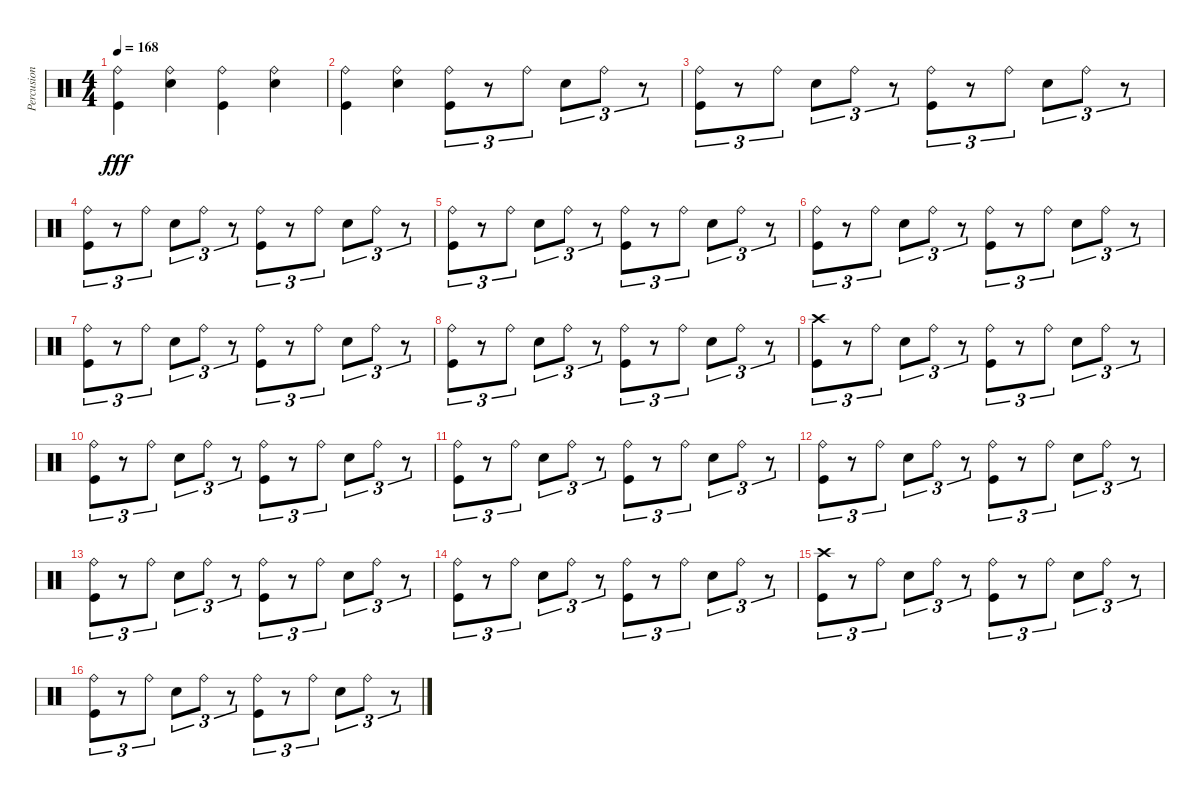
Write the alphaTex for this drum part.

\track ("Percusion" "Percusion") {instrument percussion}
\staff {score}
\articulation defaults
\ts (4 4)
\tempo 168
\clef neutral
\ks c
("Ride (bell)" "Kick (hit)").4{dy fff} ("Ride (bell)" "Snare (hit) 2").4 ("Ride (bell)" "Kick (hit)").4 ("Ride (bell)" "Snare (hit) 2").4 |
("Ride (bell)" "Kick (hit)").4 ("Ride (bell)" "Snare (hit) 2").4 ("Ride (bell)" "Kick (hit)").8{tu (3 2)} r.8{tu (3 2)} "Ride (bell)".8{tu (3 2)} "Snare (hit) 2".8{tu (3 2)} "Ride (bell)".8{tu (3 2)} r.8{tu (3 2)} |
("Ride (bell)" "Kick (hit)").8{tu (3 2)} r.8{tu (3 2)} "Ride (bell)".8{tu (3 2)} "Snare (hit) 2".8{tu (3 2)} "Ride (bell)".8{tu (3 2)} r.8{tu (3 2)} ("Ride (bell)" "Kick (hit)").8{tu (3 2)} r.8{tu (3 2)} "Ride (bell)".8{tu (3 2)} "Snare (hit) 2".8{tu (3 2)} "Ride (bell)".8{tu (3 2)} r.8{tu (3 2)} |
("Ride (bell)" "Kick (hit)").8{tu (3 2)} r.8{tu (3 2)} "Ride (bell)".8{tu (3 2)} "Snare (hit) 2".8{tu (3 2)} "Ride (bell)".8{tu (3 2)} r.8{tu (3 2)} ("Ride (bell)" "Kick (hit)").8{tu (3 2)} r.8{tu (3 2)} "Ride (bell)".8{tu (3 2)} "Snare (hit) 2".8{tu (3 2)} "Ride (bell)".8{tu (3 2)} r.8{tu (3 2)} |
("Ride (bell)" "Kick (hit)").8{tu (3 2)} r.8{tu (3 2)} "Ride (bell)".8{tu (3 2)} "Snare (hit) 2".8{tu (3 2)} "Ride (bell)".8{tu (3 2)} r.8{tu (3 2)} ("Ride (bell)" "Kick (hit)").8{tu (3 2)} r.8{tu (3 2)} "Ride (bell)".8{tu (3 2)} "Snare (hit) 2".8{tu (3 2)} "Ride (bell)".8{tu (3 2)} r.8{tu (3 2)} |
("Ride (bell)" "Kick (hit)").8{tu (3 2)} r.8{tu (3 2)} "Ride (bell)".8{tu (3 2)} "Snare (hit) 2".8{tu (3 2)} "Ride (bell)".8{tu (3 2)} r.8{tu (3 2)} ("Ride (bell)" "Kick (hit)").8{tu (3 2)} r.8{tu (3 2)} "Ride (bell)".8{tu (3 2)} "Snare (hit) 2".8{tu (3 2)} "Ride (bell)".8{tu (3 2)} r.8{tu (3 2)} |
("Ride (bell)" "Kick (hit)").8{tu (3 2)} r.8{tu (3 2)} "Ride (bell)".8{tu (3 2)} "Snare (hit) 2".8{tu (3 2)} "Ride (bell)".8{tu (3 2)} r.8{tu (3 2)} ("Ride (bell)" "Kick (hit)").8{tu (3 2)} r.8{tu (3 2)} "Ride (bell)".8{tu (3 2)} "Snare (hit) 2".8{tu (3 2)} "Ride (bell)".8{tu (3 2)} r.8{tu (3 2)} |
("Ride (bell)" "Kick (hit)").8{tu (3 2)} r.8{tu (3 2)} "Ride (bell)".8{tu (3 2)} "Snare (hit) 2".8{tu (3 2)} "Ride (bell)".8{tu (3 2)} r.8{tu (3 2)} ("Ride (bell)" "Kick (hit)").8{tu (3 2)} r.8{tu (3 2)} "Ride (bell)".8{tu (3 2)} "Snare (hit) 2".8{tu (3 2)} "Ride (bell)".8{tu (3 2)} r.8{tu (3 2)} |
("Crash high (hit)" "Kick (hit)").8{tu (3 2)} r.8{tu (3 2)} "Ride (bell)".8{tu (3 2)} "Snare (hit) 2".8{tu (3 2)} "Ride (bell)".8{tu (3 2)} r.8{tu (3 2)} ("Ride (bell)" "Kick (hit)").8{tu (3 2)} r.8{tu (3 2)} "Ride (bell)".8{tu (3 2)} "Snare (hit) 2".8{tu (3 2)} "Ride (bell)".8{tu (3 2)} r.8{tu (3 2)} |
("Ride (bell)" "Kick (hit)").8{tu (3 2)} r.8{tu (3 2)} "Ride (bell)".8{tu (3 2)} "Snare (hit) 2".8{tu (3 2)} "Ride (bell)".8{tu (3 2)} r.8{tu (3 2)} ("Ride (bell)" "Kick (hit)").8{tu (3 2)} r.8{tu (3 2)} "Ride (bell)".8{tu (3 2)} "Snare (hit) 2".8{tu (3 2)} "Ride (bell)".8{tu (3 2)} r.8{tu (3 2)} |
("Ride (bell)" "Kick (hit)").8{tu (3 2)} r.8{tu (3 2)} "Ride (bell)".8{tu (3 2)} "Snare (hit) 2".8{tu (3 2)} "Ride (bell)".8{tu (3 2)} r.8{tu (3 2)} ("Ride (bell)" "Kick (hit)").8{tu (3 2)} r.8{tu (3 2)} "Ride (bell)".8{tu (3 2)} "Snare (hit) 2".8{tu (3 2)} "Ride (bell)".8{tu (3 2)} r.8{tu (3 2)} |
("Ride (bell)" "Kick (hit)").8{tu (3 2)} r.8{tu (3 2)} "Ride (bell)".8{tu (3 2)} "Snare (hit) 2".8{tu (3 2)} "Ride (bell)".8{tu (3 2)} r.8{tu (3 2)} ("Ride (bell)" "Kick (hit)").8{tu (3 2)} r.8{tu (3 2)} "Ride (bell)".8{tu (3 2)} "Snare (hit) 2".8{tu (3 2)} "Ride (bell)".8{tu (3 2)} r.8{tu (3 2)} |
("Ride (bell)" "Kick (hit)").8{tu (3 2)} r.8{tu (3 2)} "Ride (bell)".8{tu (3 2)} "Snare (hit) 2".8{tu (3 2)} "Ride (bell)".8{tu (3 2)} r.8{tu (3 2)} ("Ride (bell)" "Kick (hit)").8{tu (3 2)} r.8{tu (3 2)} "Ride (bell)".8{tu (3 2)} "Snare (hit) 2".8{tu (3 2)} "Ride (bell)".8{tu (3 2)} r.8{tu (3 2)} |
("Ride (bell)" "Kick (hit)").8{tu (3 2)} r.8{tu (3 2)} "Ride (bell)".8{tu (3 2)} "Snare (hit) 2".8{tu (3 2)} "Ride (bell)".8{tu (3 2)} r.8{tu (3 2)} ("Ride (bell)" "Kick (hit)").8{tu (3 2)} r.8{tu (3 2)} "Ride (bell)".8{tu (3 2)} "Snare (hit) 2".8{tu (3 2)} "Ride (bell)".8{tu (3 2)} r.8{tu (3 2)} |
("Crash high (hit)" "Kick (hit)").8{tu (3 2)} r.8{tu (3 2)} "Ride (bell)".8{tu (3 2)} "Snare (hit) 2".8{tu (3 2)} "Ride (bell)".8{tu (3 2)} r.8{tu (3 2)} ("Ride (bell)" "Kick (hit)").8{tu (3 2)} r.8{tu (3 2)} "Ride (bell)".8{tu (3 2)} "Snare (hit) 2".8{tu (3 2)} "Ride (bell)".8{tu (3 2)} r.8{tu (3 2)} |
("Ride (bell)" "Kick (hit)").8{tu (3 2)} r.8{tu (3 2)} "Ride (bell)".8{tu (3 2)} "Snare (hit) 2".8{tu (3 2)} "Ride (bell)".8{tu (3 2)} r.8{tu (3 2)} ("Ride (bell)" "Kick (hit)").8{tu (3 2)} r.8{tu (3 2)} "Ride (bell)".8{tu (3 2)} "Snare (hit) 2".8{tu (3 2)} "Ride (bell)".8{tu (3 2)} r.8{tu (3 2)}
